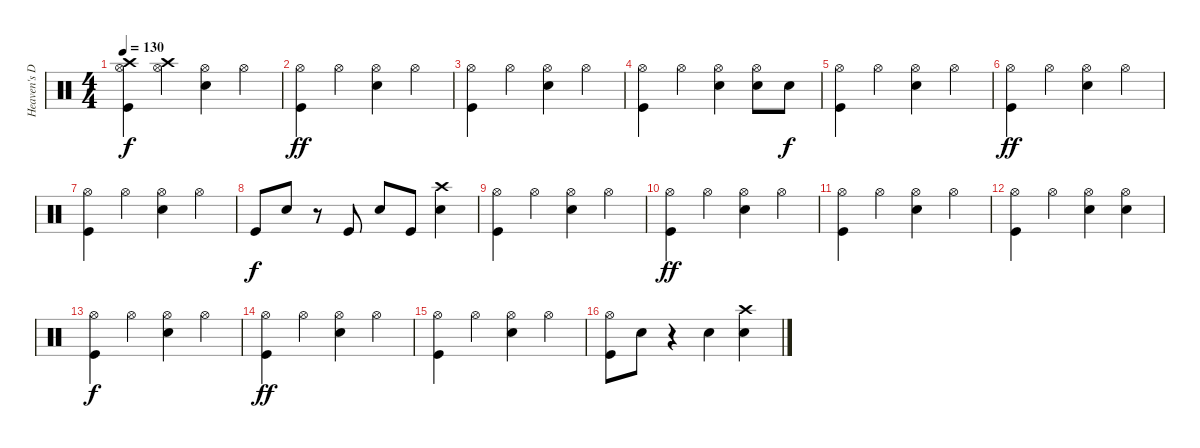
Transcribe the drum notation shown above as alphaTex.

\track ("Heaven's Door" "Heaven's D") {instrument percussion}
\staff {score}
\articulation defaults
\ts (4 4)
\tempo 130
\clef neutral
\ks c
("Crash high (hit)" "Hi-Hat (open)" "Kick (hit)").4{dy f} ("Crash high (hit)" "Hi-Hat (open)").4 ("Electric Snare (hit)" "Hi-Hat (open)").4 "Hi-Hat (open)".4 |
("Hi-Hat (open)" "Kick (hit)").4{dy ff} "Hi-Hat (open)".4 ("Electric Snare (hit)" "Hi-Hat (open)").4 "Hi-Hat (open)".4 |
("Kick (hit)" "Hi-Hat (open)").4 "Hi-Hat (open)".4 ("Electric Snare (hit)" "Hi-Hat (open)").4 "Hi-Hat (open)".4 |
("Hi-Hat (open)" "Kick (hit)").4 "Hi-Hat (open)".4 ("Electric Snare (hit)" "Hi-Hat (open)").4 ("Electric Snare (hit)" "Hi-Hat (open)").8 "Electric Snare (hit)".8{dy f} |
("Hi-Hat (open)" "Kick (hit)").4 "Hi-Hat (open)".4 ("Electric Snare (hit)" "Hi-Hat (open)").4 "Hi-Hat (open)".4 |
("Hi-Hat (open)" "Kick (hit)").4{dy ff} "Hi-Hat (open)".4 ("Electric Snare (hit)" "Hi-Hat (open)").4 "Hi-Hat (open)".4 |
("Kick (hit)" "Hi-Hat (open)").4 "Hi-Hat (open)".4 ("Electric Snare (hit)" "Hi-Hat (open)").4 "Hi-Hat (open)".4 |
"Kick (hit)".8{dy f} "Electric Snare (hit)".8 r.8 "Kick (hit)".8 "Electric Snare (hit)".8 "Kick (hit)".8 ("Crash high (hit)" "Electric Snare (hit)").4 |
("Hi-Hat (open)" "Kick (hit)").4 "Hi-Hat (open)".4 ("Electric Snare (hit)" "Hi-Hat (open)").4 "Hi-Hat (open)".4 |
("Hi-Hat (open)" "Kick (hit)").4{dy ff} "Hi-Hat (open)".4 ("Electric Snare (hit)" "Hi-Hat (open)").4 "Hi-Hat (open)".4 |
("Kick (hit)" "Hi-Hat (open)").4 "Hi-Hat (open)".4 ("Electric Snare (hit)" "Hi-Hat (open)").4 "Hi-Hat (open)".4 |
("Hi-Hat (open)" "Kick (hit)").4 "Hi-Hat (open)".4 ("Electric Snare (hit)" "Hi-Hat (open)").4 ("Electric Snare (hit)" "Hi-Hat (open)").4 |
("Hi-Hat (open)" "Kick (hit)").4{dy f} "Hi-Hat (open)".4 ("Electric Snare (hit)" "Hi-Hat (open)").4 "Hi-Hat (open)".4 |
("Hi-Hat (open)" "Kick (hit)").4{dy ff} "Hi-Hat (open)".4 ("Electric Snare (hit)" "Hi-Hat (open)").4 "Hi-Hat (open)".4 |
("Kick (hit)" "Hi-Hat (open)").4 "Hi-Hat (open)".4 ("Electric Snare (hit)" "Hi-Hat (open)").4 "Hi-Hat (open)".4 |
("Kick (hit)" "Hi-Hat (open)").8 "Electric Snare (hit)".8 r.4 "Electric Snare (hit)".4 ("Crash high (hit)" "Electric Snare (hit)").4
